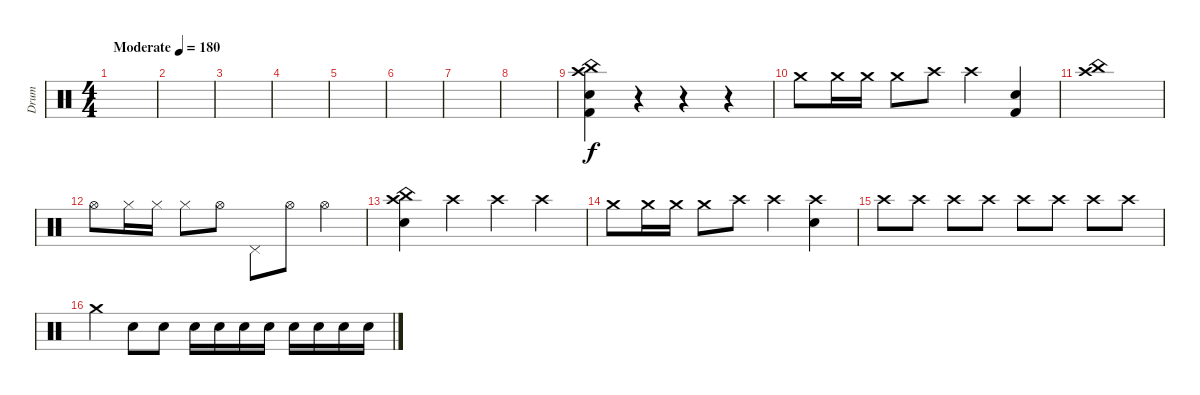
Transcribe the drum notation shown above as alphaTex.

\track ("Drum" "Drum") {instrument percussion}
\staff {score}
\articulation defaults
\ts (4 4)
\tempo (180 "Moderate")
\clef neutral
\ks c
|
|
|
|
|
|
|
|
("China (hit)" "Crash high (hit)" "Electric Snare (hit)" "Kick (hit) 2").4 r.4 r.4 r.4 |
"Crash medium (hit)".8 "Crash medium (hit)".16 "Crash medium (hit)".16 "Crash medium (hit)".8 "Crash high (hit)".8 "Crash high (hit)".4 ("Electric Snare (hit)" "Kick (hit) 2").4 |
("China (hit)" "Crash high (hit)").1 |
"Hi-Hat (open)".8 "Hi-Hat (closed)".16 "Hi-Hat (closed)".16 "Hi-Hat (closed)".8 "Hi-Hat (open)".8 "Pedal Hi-Hat (hit)".8 "Hi-Hat (open)".8 "Hi-Hat (open)".4 |
("China (hit)" "Crash high (hit)" "Electric Snare (hit)").4 "Crash high (hit)".4 "Crash high (hit)".4 "Crash high (hit)".4 |
"Crash medium (hit)".8 "Crash medium (hit)".16 "Crash medium (hit)".16 "Crash medium (hit)".8 "Crash high (hit)".8 "Crash high (hit)".4 ("Crash high (hit)" "Electric Snare (hit)").4 |
"Crash high (hit)".8 "Crash high (hit)".8 "Crash high (hit)".8 "Crash high (hit)".8 "Crash high (hit)".8 "Crash high (hit)".8 "Crash high (hit)".8 "Crash high (hit)".8 |
"Crash medium (hit)".4 "Electric Snare (hit)".8 "Electric Snare (hit)".8 "Electric Snare (hit)".16 "Electric Snare (hit)".16 "Electric Snare (hit)".16 "Electric Snare (hit)".16 "Electric Snare (hit)".16 "Electric Snare (hit)".16 "Electric Snare (hit)".16 "Electric Snare (hit)".16
